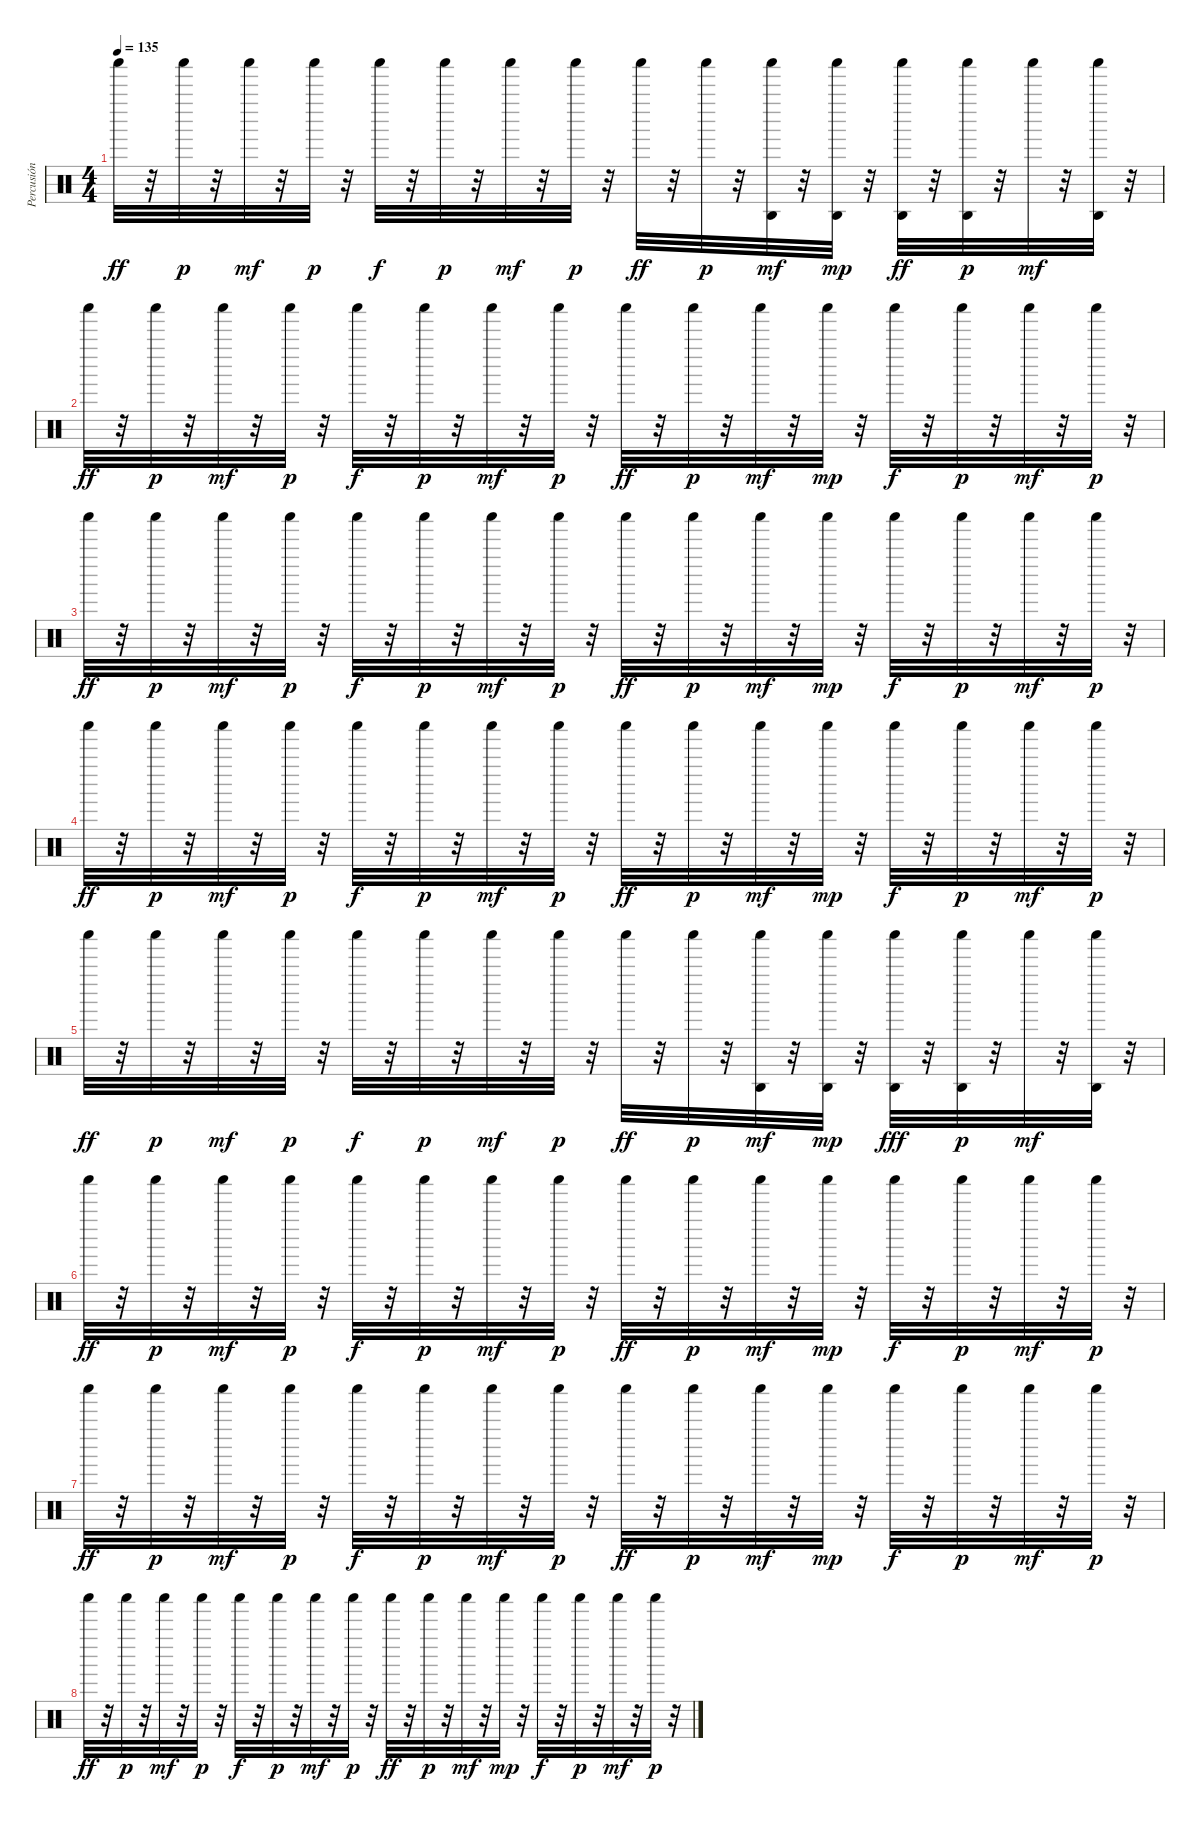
\track ("Percusión" "Percusión") {instrument percussion}
\staff {score}
\articulation defaults
\ts (4 4)
\tempo 135
\clef neutral
\ks c "Shaker (hit)".32{dy ff}
r.32 "Shaker (hit)".32{dy p} r.32 "Shaker (hit)".32{dy mf} r.32 "Shaker (hit)".32{dy p} r.32 "Shaker (hit)".32{dy f} r.32 "Shaker (hit)".32{dy p} r.32 "Shaker (hit)".32{dy mf} r.32 "Shaker (hit)".32{dy p} r.32 "Shaker (hit)".32{dy ff} r.32 "Shaker (hit)".32{dy p} r.32 ("Agogo high (hit)" "Shaker (hit)").32{dy mf} r.32 ("Agogo high (hit)" "Shaker (hit)").32{dy mp} r.32 ("Agogo high (hit)" "Shaker (hit)").32{dy ff} r.32 ("Agogo high (hit)" "Shaker (hit)").32{dy p} r.32 "Shaker (hit)".32{dy mf} r.32 ("Shaker (hit)" "Agogo high (hit)").32 r.32 |
"Shaker (hit)".32{dy ff} r.32 "Shaker (hit)".32{dy p} r.32 "Shaker (hit)".32{dy mf} r.32 "Shaker (hit)".32{dy p} r.32 "Shaker (hit)".32{dy f} r.32 "Shaker (hit)".32{dy p} r.32 "Shaker (hit)".32{dy mf} r.32 "Shaker (hit)".32{dy p} r.32 "Shaker (hit)".32{dy ff} r.32 "Shaker (hit)".32{dy p} r.32 "Shaker (hit)".32{dy mf} r.32 "Shaker (hit)".32{dy mp} r.32 "Shaker (hit)".32{dy f} r.32 "Shaker (hit)".32{dy p} r.32 "Shaker (hit)".32{dy mf} r.32 "Shaker (hit)".32{dy p} r.32 |
"Shaker (hit)".32{dy ff} r.32 "Shaker (hit)".32{dy p} r.32 "Shaker (hit)".32{dy mf} r.32 "Shaker (hit)".32{dy p} r.32 "Shaker (hit)".32{dy f} r.32 "Shaker (hit)".32{dy p} r.32 "Shaker (hit)".32{dy mf} r.32 "Shaker (hit)".32{dy p} r.32 "Shaker (hit)".32{dy ff} r.32 "Shaker (hit)".32{dy p} r.32 "Shaker (hit)".32{dy mf} r.32 "Shaker (hit)".32{dy mp} r.32 "Shaker (hit)".32{dy f} r.32 "Shaker (hit)".32{dy p} r.32 "Shaker (hit)".32{dy mf} r.32 "Shaker (hit)".32{dy p} r.32 |
"Shaker (hit)".32{dy ff} r.32 "Shaker (hit)".32{dy p} r.32 "Shaker (hit)".32{dy mf} r.32 "Shaker (hit)".32{dy p} r.32 "Shaker (hit)".32{dy f} r.32 "Shaker (hit)".32{dy p} r.32 "Shaker (hit)".32{dy mf} r.32 "Shaker (hit)".32{dy p} r.32 "Shaker (hit)".32{dy ff} r.32 "Shaker (hit)".32{dy p} r.32 "Shaker (hit)".32{dy mf} r.32 "Shaker (hit)".32{dy mp} r.32 "Shaker (hit)".32{dy f} r.32 "Shaker (hit)".32{dy p} r.32 "Shaker (hit)".32{dy mf} r.32 "Shaker (hit)".32{dy p} r.32 |
"Shaker (hit)".32{dy ff} r.32 "Shaker (hit)".32{dy p} r.32 "Shaker (hit)".32{dy mf} r.32 "Shaker (hit)".32{dy p} r.32 "Shaker (hit)".32{dy f} r.32 "Shaker (hit)".32{dy p} r.32 "Shaker (hit)".32{dy mf} r.32 "Shaker (hit)".32{dy p} r.32 "Shaker (hit)".32{dy ff} r.32 "Shaker (hit)".32{dy p} r.32 ("Agogo high (hit)" "Shaker (hit)").32{dy mf} r.32 ("Agogo high (hit)" "Shaker (hit)").32{dy mp} r.32 ("Agogo high (hit)" "Shaker (hit)").32{dy fff} r.32 ("Agogo high (hit)" "Shaker (hit)").32{dy p} r.32 "Shaker (hit)".32{dy mf} r.32 ("Shaker (hit)" "Agogo high (hit)").32 r.32 |
"Shaker (hit)".32{dy ff} r.32 "Shaker (hit)".32{dy p} r.32 "Shaker (hit)".32{dy mf} r.32 "Shaker (hit)".32{dy p} r.32 "Shaker (hit)".32{dy f} r.32 "Shaker (hit)".32{dy p} r.32 "Shaker (hit)".32{dy mf} r.32 "Shaker (hit)".32{dy p} r.32 "Shaker (hit)".32{dy ff} r.32 "Shaker (hit)".32{dy p} r.32 "Shaker (hit)".32{dy mf} r.32 "Shaker (hit)".32{dy mp} r.32 "Shaker (hit)".32{dy f} r.32 "Shaker (hit)".32{dy p} r.32 "Shaker (hit)".32{dy mf} r.32 "Shaker (hit)".32{dy p} r.32 |
"Shaker (hit)".32{dy ff} r.32 "Shaker (hit)".32{dy p} r.32 "Shaker (hit)".32{dy mf} r.32 "Shaker (hit)".32{dy p} r.32 "Shaker (hit)".32{dy f} r.32 "Shaker (hit)".32{dy p} r.32 "Shaker (hit)".32{dy mf} r.32 "Shaker (hit)".32{dy p} r.32 "Shaker (hit)".32{dy ff} r.32 "Shaker (hit)".32{dy p} r.32 "Shaker (hit)".32{dy mf} r.32 "Shaker (hit)".32{dy mp} r.32 "Shaker (hit)".32{dy f} r.32 "Shaker (hit)".32{dy p} r.32 "Shaker (hit)".32{dy mf} r.32 "Shaker (hit)".32{dy p} r.32 |
"Shaker (hit)".32{dy ff} r.32 "Shaker (hit)".32{dy p} r.32 "Shaker (hit)".32{dy mf} r.32 "Shaker (hit)".32{dy p} r.32 "Shaker (hit)".32{dy f} r.32 "Shaker (hit)".32{dy p} r.32 "Shaker (hit)".32{dy mf} r.32 "Shaker (hit)".32{dy p} r.32 "Shaker (hit)".32{dy ff} r.32 "Shaker (hit)".32{dy p} r.32 "Shaker (hit)".32{dy mf} r.32 "Shaker (hit)".32{dy mp} r.32 "Shaker (hit)".32{dy f} r.32 "Shaker (hit)".32{dy p} r.32 "Shaker (hit)".32{dy mf} r.32 "Shaker (hit)".32{dy p} r.32
